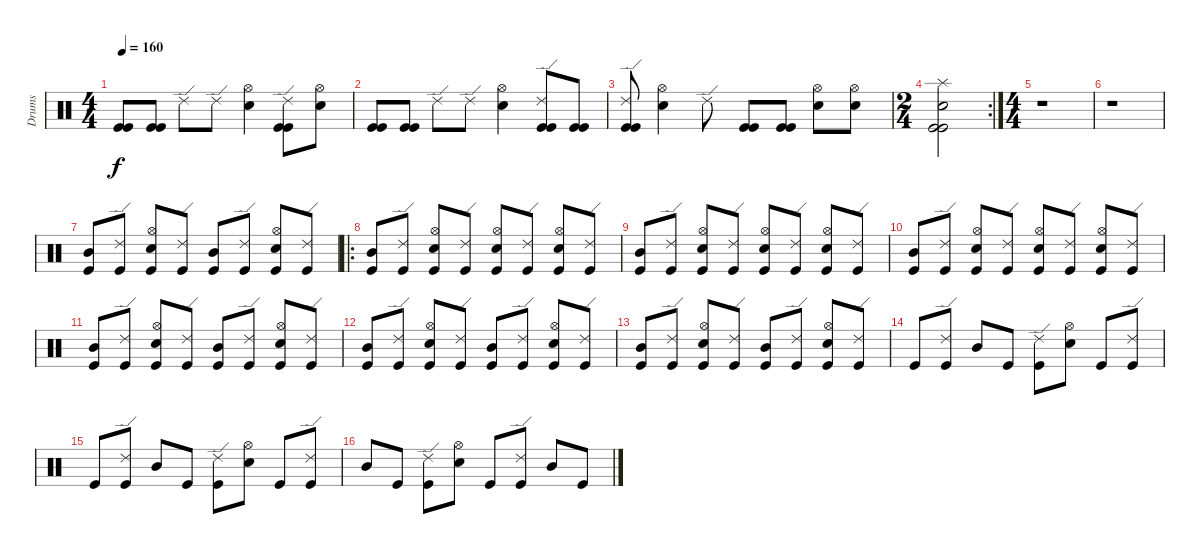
\track ("Drums" "Drums") {instrument percussion}
\staff {score}
\articulation defaults
\ts (4 4)
\tempo 160
\clef neutral
\ks c
("Kick (hit)" "Kick (hit)").8{dy f} ("Kick (hit)" "Kick (hit)").8 "Ride (edge) 2".8 "Ride (edge) 2".8 ("Hi-Hat (open)" "Snare (hit) 2").4 ("Ride (edge) 2" "Kick (hit)" "Kick (hit)").8 ("Hi-Hat (open)" "Snare (hit) 2").8 |
("Kick (hit)" "Kick (hit)").8 ("Kick (hit)" "Kick (hit)").8 "Ride (edge) 2".8 "Ride (edge) 2".8 ("Hi-Hat (open)" "Snare (hit) 2").4 ("Ride (edge) 2" "Kick (hit)" "Kick (hit)").8 ("Kick (hit)" "Kick (hit)").8 |
("Ride (edge) 2" "Kick (hit)" "Kick (hit)").8 ("Hi-Hat (open)" "Snare (hit) 2").4 "Ride (edge) 2".8 ("Kick (hit)" "Kick (hit)").8 ("Kick (hit)" "Kick (hit)").8 ("Hi-Hat (open)" "Snare (hit) 2").8 ("Hi-Hat (open)" "Snare (hit) 2").8 |
\rc 2
\ts (2 4)
("Splash (hit)" "Snare (hit) 2" "Kick (hit)" "Kick (hit)").2 |
\ts (4 4)
r.1 |
r.1 |
("Mid Tom (hit)" "Kick (hit)").8 ("Kick (hit)" "Ride (edge) 2").8 ("Hi-Hat (open)" "Snare (hit) 2" "Kick (hit)").8 ("Kick (hit)" "Ride (edge) 2").8 ("Mid Tom (hit)" "Kick (hit)").8 ("Kick (hit)" "Ride (edge) 2").8 ("Hi-Hat (open)" "Snare (hit) 2" "Kick (hit)").8 ("Kick (hit)" "Ride (edge) 2").8 |
\ro
("Mid Tom (hit)" "Kick (hit)").8 ("Kick (hit)" "Ride (edge) 2").8 ("Hi-Hat (open)" "Snare (hit) 2" "Kick (hit)").8 ("Kick (hit)" "Ride (edge) 2").8 ("Hi-Hat (open)" "Snare (hit) 2" "Kick (hit)").8 ("Kick (hit)" "Ride (edge) 2").8 ("Hi-Hat (open)" "Snare (hit) 2" "Kick (hit)").8 ("Kick (hit)" "Ride (edge) 2").8 |
("Mid Tom (hit)" "Kick (hit)").8 ("Kick (hit)" "Ride (edge) 2").8 ("Hi-Hat (open)" "Snare (hit) 2" "Kick (hit)").8 ("Kick (hit)" "Ride (edge) 2").8 ("Hi-Hat (open)" "Snare (hit) 2" "Kick (hit)").8 ("Kick (hit)" "Ride (edge) 2").8 ("Hi-Hat (open)" "Snare (hit) 2" "Kick (hit)").8 ("Kick (hit)" "Ride (edge) 2").8 |
("Mid Tom (hit)" "Kick (hit)").8 ("Kick (hit)" "Ride (edge) 2").8 ("Hi-Hat (open)" "Snare (hit) 2" "Kick (hit)").8 ("Kick (hit)" "Ride (edge) 2").8 ("Hi-Hat (open)" "Snare (hit) 2" "Kick (hit)").8 ("Kick (hit)" "Ride (edge) 2").8 ("Hi-Hat (open)" "Snare (hit) 2" "Kick (hit)").8 ("Kick (hit)" "Ride (edge) 2").8 |
("Mid Tom (hit)" "Kick (hit)").8 ("Kick (hit)" "Ride (edge) 2").8 ("Hi-Hat (open)" "Snare (hit) 2" "Kick (hit)").8 ("Kick (hit)" "Ride (edge) 2").8 ("Mid Tom (hit)" "Kick (hit)").8 ("Kick (hit)" "Ride (edge) 2").8 ("Hi-Hat (open)" "Snare (hit) 2" "Kick (hit)").8 ("Kick (hit)" "Ride (edge) 2").8 |
("Mid Tom (hit)" "Kick (hit)").8 ("Kick (hit)" "Ride (edge) 2").8 ("Hi-Hat (open)" "Snare (hit) 2" "Kick (hit)").8 ("Kick (hit)" "Ride (edge) 2").8 ("Mid Tom (hit)" "Kick (hit)").8 ("Kick (hit)" "Ride (edge) 2").8 ("Hi-Hat (open)" "Snare (hit) 2" "Kick (hit)").8 ("Kick (hit)" "Ride (edge) 2").8 |
("Mid Tom (hit)" "Kick (hit)").8 ("Kick (hit)" "Ride (edge) 2").8 ("Hi-Hat (open)" "Snare (hit) 2" "Kick (hit)").8 ("Kick (hit)" "Ride (edge) 2").8 ("Mid Tom (hit)" "Kick (hit)").8 ("Kick (hit)" "Ride (edge) 2").8 ("Hi-Hat (open)" "Snare (hit) 2" "Kick (hit)").8 ("Kick (hit)" "Ride (edge) 2").8 |
"Kick (hit)".8 ("Kick (hit)" "Ride (edge) 2").8 "Mid Tom (hit)".8 "Kick (hit)".8 ("Kick (hit)" "Ride (edge) 2").8 ("Hi-Hat (open)" "Snare (hit) 2").8 "Kick (hit)".8 ("Kick (hit)" "Ride (edge) 2").8 |
"Kick (hit)".8 ("Kick (hit)" "Ride (edge) 2").8 "Mid Tom (hit)".8 "Kick (hit)".8 ("Kick (hit)" "Ride (edge) 2").8 ("Hi-Hat (open)" "Snare (hit) 2").8 "Kick (hit)".8 ("Kick (hit)" "Ride (edge) 2").8 |
"Mid Tom (hit)".8 "Kick (hit)".8 ("Kick (hit)" "Ride (edge) 2").8 ("Hi-Hat (open)" "Snare (hit) 2").8 "Kick (hit)".8 ("Kick (hit)" "Ride (edge) 2").8 "Mid Tom (hit)".8 "Kick (hit)".8
